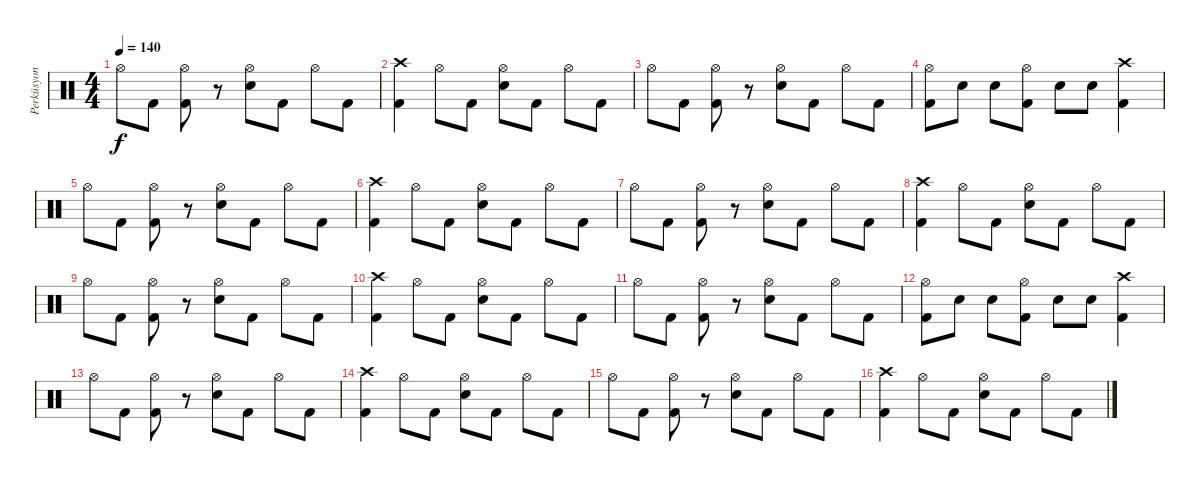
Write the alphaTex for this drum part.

\track ("Perküsyon" "Perküsyon") {instrument percussion}
\staff {score}
\articulation defaults
\ts (4 4)
\tempo 140
\clef neutral
\ks c "Hi-Hat (open)".8{dy f} "Kick (hit) 2".8
("Hi-Hat (open)" "Kick (hit) 2").8 r.8 ("Hi-Hat (open)" "Electric Snare (hit)").8 "Kick (hit) 2".8 "Hi-Hat (open)".8 "Kick (hit) 2".8 |
("Crash high (hit)" "Kick (hit) 2").4 "Hi-Hat (open)".8 "Kick (hit) 2".8 ("Hi-Hat (open)" "Electric Snare (hit)").8 "Kick (hit) 2".8 "Hi-Hat (open)".8 "Kick (hit) 2".8 |
"Hi-Hat (open)".8 "Kick (hit) 2".8 ("Hi-Hat (open)" "Kick (hit) 2").8 r.8 ("Hi-Hat (open)" "Electric Snare (hit)").8 "Kick (hit) 2".8 "Hi-Hat (open)".8 "Kick (hit) 2".8 |
("Hi-Hat (open)" "Kick (hit) 2").8 "Electric Snare (hit)".8 "Electric Snare (hit)".8 ("Hi-Hat (open)" "Kick (hit) 2").8 "Electric Snare (hit)".8 "Electric Snare (hit)".8 ("Crash high (hit)" "Kick (hit) 2").4 |
"Hi-Hat (open)".8 "Kick (hit) 2".8 ("Hi-Hat (open)" "Kick (hit) 2").8 r.8 ("Hi-Hat (open)" "Electric Snare (hit)").8 "Kick (hit) 2".8 "Hi-Hat (open)".8 "Kick (hit) 2".8 |
("Crash high (hit)" "Kick (hit) 2").4 "Hi-Hat (open)".8 "Kick (hit) 2".8 ("Hi-Hat (open)" "Electric Snare (hit)").8 "Kick (hit) 2".8 "Hi-Hat (open)".8 "Kick (hit) 2".8 |
"Hi-Hat (open)".8 "Kick (hit) 2".8 ("Hi-Hat (open)" "Kick (hit) 2").8 r.8 ("Hi-Hat (open)" "Electric Snare (hit)").8 "Kick (hit) 2".8 "Hi-Hat (open)".8 "Kick (hit) 2".8 |
("Crash high (hit)" "Kick (hit) 2").4 "Hi-Hat (open)".8 "Kick (hit) 2".8 ("Hi-Hat (open)" "Electric Snare (hit)").8 "Kick (hit) 2".8 "Hi-Hat (open)".8 "Kick (hit) 2".8 |
"Hi-Hat (open)".8 "Kick (hit) 2".8 ("Hi-Hat (open)" "Kick (hit) 2").8 r.8 ("Hi-Hat (open)" "Electric Snare (hit)").8 "Kick (hit) 2".8 "Hi-Hat (open)".8 "Kick (hit) 2".8 |
("Crash high (hit)" "Kick (hit) 2").4 "Hi-Hat (open)".8 "Kick (hit) 2".8 ("Hi-Hat (open)" "Electric Snare (hit)").8 "Kick (hit) 2".8 "Hi-Hat (open)".8 "Kick (hit) 2".8 |
"Hi-Hat (open)".8 "Kick (hit) 2".8 ("Hi-Hat (open)" "Kick (hit) 2").8 r.8 ("Hi-Hat (open)" "Electric Snare (hit)").8 "Kick (hit) 2".8 "Hi-Hat (open)".8 "Kick (hit) 2".8 |
("Hi-Hat (open)" "Kick (hit) 2").8 "Electric Snare (hit)".8 "Electric Snare (hit)".8 ("Hi-Hat (open)" "Kick (hit) 2").8 "Electric Snare (hit)".8 "Electric Snare (hit)".8 ("Crash high (hit)" "Kick (hit) 2").4 |
"Hi-Hat (open)".8 "Kick (hit) 2".8 ("Hi-Hat (open)" "Kick (hit) 2").8 r.8 ("Hi-Hat (open)" "Electric Snare (hit)").8 "Kick (hit) 2".8 "Hi-Hat (open)".8 "Kick (hit) 2".8 |
("Crash high (hit)" "Kick (hit) 2").4 "Hi-Hat (open)".8 "Kick (hit) 2".8 ("Hi-Hat (open)" "Electric Snare (hit)").8 "Kick (hit) 2".8 "Hi-Hat (open)".8 "Kick (hit) 2".8 |
"Hi-Hat (open)".8 "Kick (hit) 2".8 ("Hi-Hat (open)" "Kick (hit) 2").8 r.8 ("Hi-Hat (open)" "Electric Snare (hit)").8 "Kick (hit) 2".8 "Hi-Hat (open)".8 "Kick (hit) 2".8 |
("Crash high (hit)" "Kick (hit) 2").4 "Hi-Hat (open)".8 "Kick (hit) 2".8 ("Hi-Hat (open)" "Electric Snare (hit)").8 "Kick (hit) 2".8 "Hi-Hat (open)".8 "Kick (hit) 2".8
